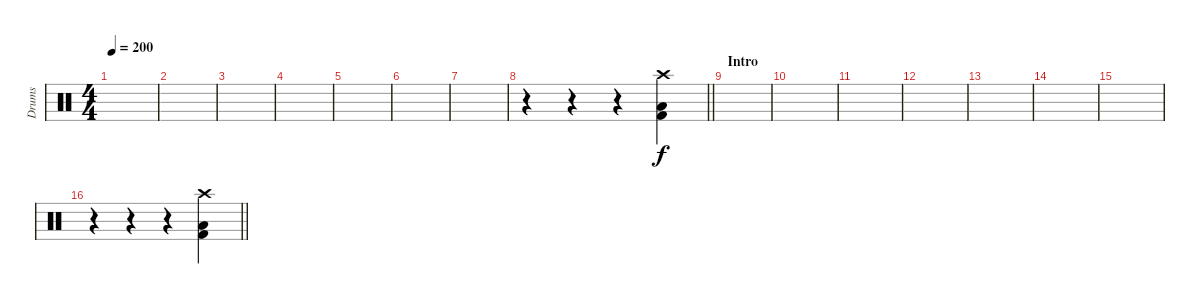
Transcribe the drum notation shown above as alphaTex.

\track ("Drums" "Drums") {instrument percussion}
\staff {score}
\articulation defaults
\ts (4 4)
\tempo 200
\clef neutral
\ks c
|
|
|
|
|
|
|
\barLineRight lightlight
r.4 r.4 r.4 ("Crash high (hit)" "Low Floor Tom (hit)" "Kick (hit) 2").4 |
\section ("" "Intro")
|
|
|
|
|
|
|
\barLineRight lightlight
r.4 r.4 r.4 ("Crash high (hit)" "Low Floor Tom (hit)" "Kick (hit) 2").4
